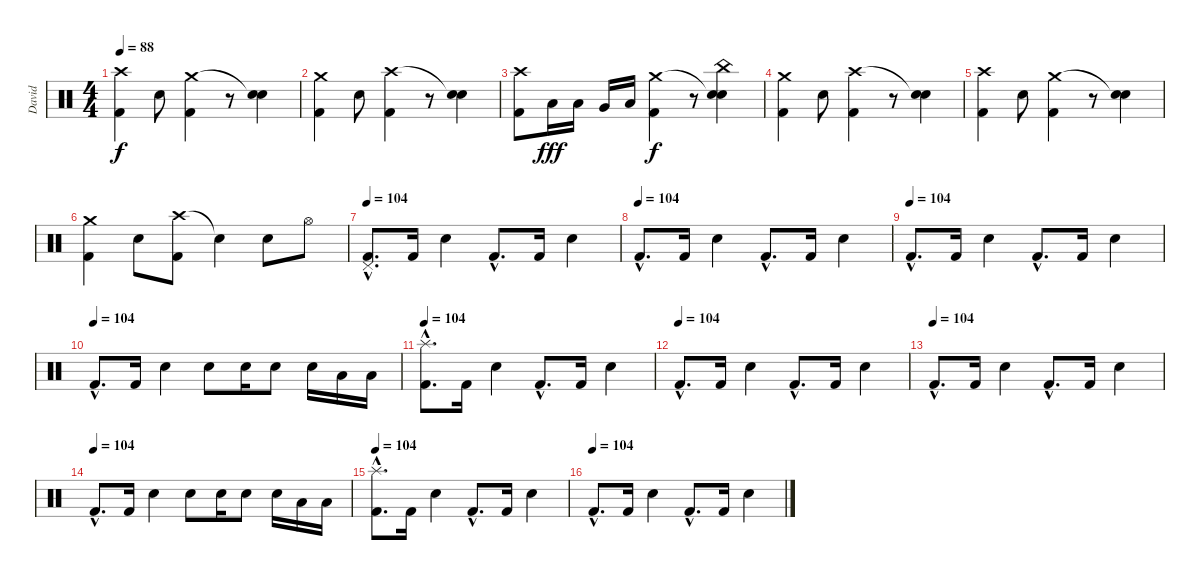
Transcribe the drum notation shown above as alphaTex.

\track ("David" "David") {instrument percussion}
\staff {score}
\articulation defaults
\ts (4 4)
\tempo 88
\clef neutral
\ks c
("Kick (hit) 2" "Crash high (hit)").4{dy f} "Snare (hit) 2".8 ("Crash medium (hit)" "Kick (hit) 2").4 r.8 ("Snare (hit)"{t} "Snare (hit) 2").4 |
("Kick (hit) 2" "Crash medium (hit)").4 "Snare (hit) 2".8 ("Crash high (hit)" "Kick (hit) 2").4 r.8 ("Snare (hit)"{t} "Snare (hit) 2").4 |
("Kick (hit) 2" "Crash high (hit)").8 "Low Tom (hit)".16{dy fff} "Low Tom (hit)".16 "Very Low Tom (hit)".16 "Low Floor Tom (hit)".16 ("Crash medium (hit)" "Kick (hit) 2").4{dy f} r.8 ("Snare (hit)"{t} "China (hit)" "Snare (hit) 2").4 |
("Kick (hit) 2" "Crash medium (hit)").4 "Snare (hit) 2".8 ("Crash high (hit)" "Kick (hit) 2").4 r.8 ("Snare (hit)"{t} "Snare (hit) 2").4 |
("Kick (hit) 2" "Crash high (hit)").4 "Snare (hit) 2".8 ("Crash medium (hit)" "Kick (hit) 2").4 r.8 ("Snare (hit)"{t} "Snare (hit) 2").4 |
("Kick (hit) 2" "Crash medium (hit)").4 "Snare (hit) 2".8 ("Crash high (hit)" "Kick (hit) 2").8 "Snare (hit)"{t}.4 "Snare (hit) 2".8 "Hi-Hat (open)".8 |
\tempo 104
("Pedal Hi-Hat (hit)"{hac} "Kick (hit) 2"{hac}).8{d} "Kick (hit) 2".16 "Snare (hit) 2".4 "Kick (hit) 2"{hac}.8{d} "Kick (hit) 2".16 "Snare (hit) 2".4 |
\tempo (104)
"Kick (hit) 2"{hac}.8{d} "Kick (hit) 2".16 "Snare (hit) 2".4 "Kick (hit) 2"{hac}.8{d} "Kick (hit) 2".16 "Snare (hit) 2".4 |
\tempo (104)
"Kick (hit) 2"{hac}.8{d} "Kick (hit) 2".16 "Snare (hit) 2".4 "Kick (hit) 2"{hac}.8{d} "Kick (hit) 2".16 "Snare (hit) 2".4 |
\tempo (104)
"Kick (hit) 2"{hac}.8{d} "Kick (hit) 2".16 "Snare (hit) 2".4 "Snare (hit) 2".8 "Snare (hit) 2".16 "Snare (hit) 2".8 "Snare (hit) 2".16 "Low Tom (hit)".16 "Low Tom (hit)".16 |
\tempo 104
("Splash (hit)"{hac} "Kick (hit) 2"{hac}).8{d} "Kick (hit) 2".16 "Snare (hit) 2".4 "Kick (hit) 2"{hac}.8{d} "Kick (hit) 2".16 "Snare (hit) 2".4 |
\tempo (104)
"Kick (hit) 2"{hac}.8{d} "Kick (hit) 2".16 "Snare (hit) 2".4 "Kick (hit) 2"{hac}.8{d} "Kick (hit) 2".16 "Snare (hit) 2".4 |
\tempo (104)
"Kick (hit) 2"{hac}.8{d} "Kick (hit) 2".16 "Snare (hit) 2".4 "Kick (hit) 2"{hac}.8{d} "Kick (hit) 2".16 "Snare (hit) 2".4 |
\tempo (104)
"Kick (hit) 2"{hac}.8{d} "Kick (hit) 2".16 "Snare (hit) 2".4 "Snare (hit) 2".8 "Snare (hit) 2".16 "Snare (hit) 2".8 "Snare (hit) 2".16 "Low Tom (hit)".16 "Low Tom (hit)".16 |
\tempo 104
("Splash (hit)"{hac} "Kick (hit) 2"{hac}).8{d} "Kick (hit) 2".16 "Snare (hit) 2".4 "Kick (hit) 2"{hac}.8{d} "Kick (hit) 2".16 "Snare (hit) 2".4 |
\tempo (104)
"Kick (hit) 2"{hac}.8{d} "Kick (hit) 2".16 "Snare (hit) 2".4 "Kick (hit) 2"{hac}.8{d} "Kick (hit) 2".16 "Snare (hit) 2".4
